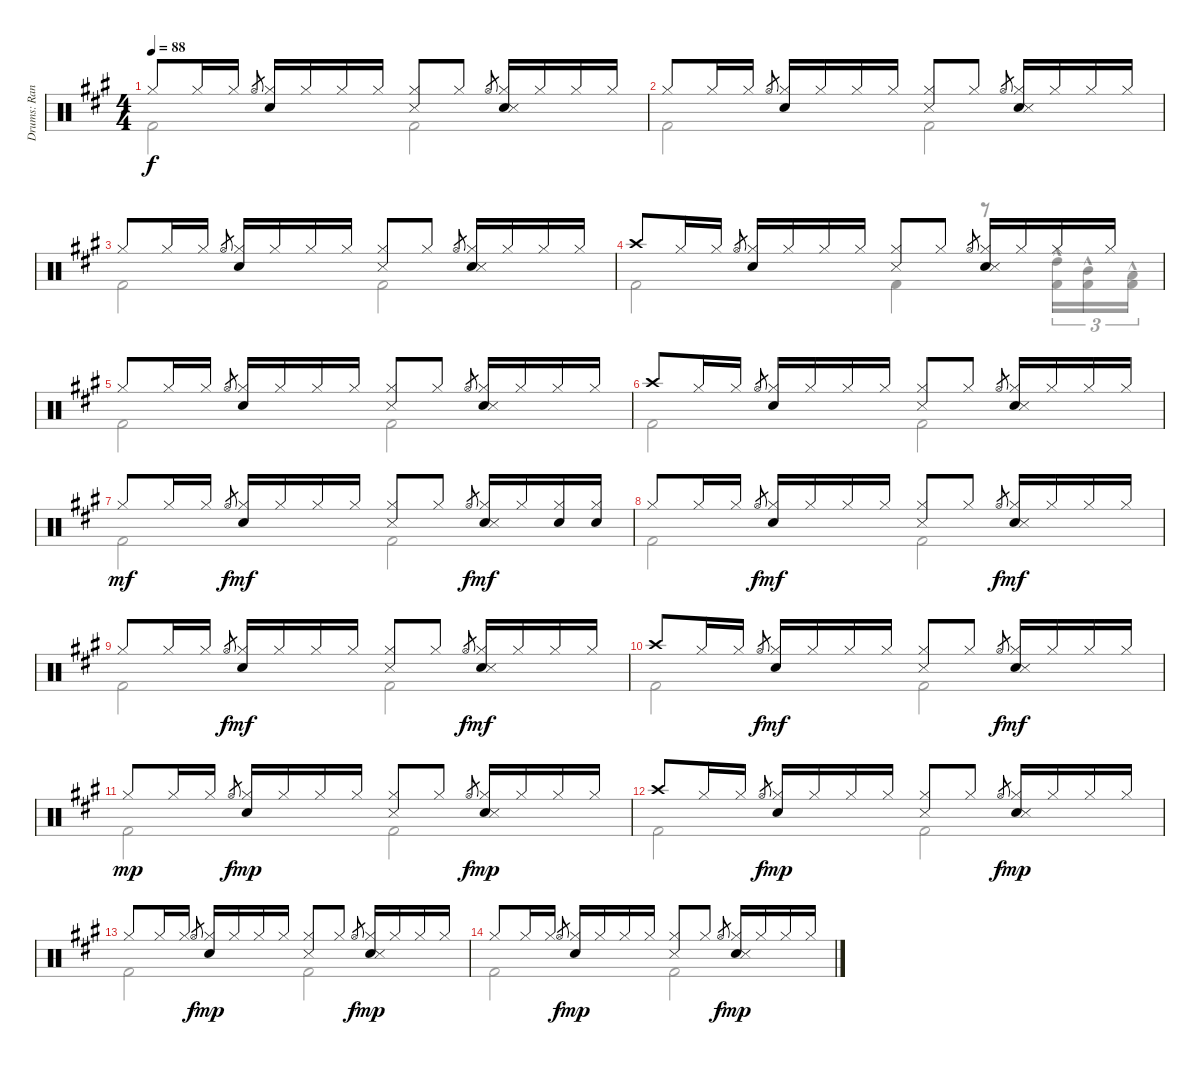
\track ("Drums: Randy" "Drums: Ran") {instrument percussion}
\staff {score}
\articulation defaults
\voice
\ts (4 4)
\tempo 88
\clef neutral
\ks a "Hi-Hat (closed)".8{dy f} "Hi-Hat (closed)".16 "Hi-Hat (closed)".16 "Hi-Hat (open)".8{gr}
("Hi-Hat (closed)" "Electric Snare (hit)").16 "Hi-Hat (closed)".16 "Hi-Hat (closed)".16 "Hi-Hat (closed)".16 ("Hi-Hat (closed)" "Snare (side stick) 3").8 "Hi-Hat (closed)".8 "Hi-Hat (open)".8{gr} ("Hi-Hat (closed)" "Electric Snare (hit)" "Snare (side stick) 3").16 "Hi-Hat (closed)".16 "Hi-Hat (closed)".16 "Hi-Hat (closed)".16 |
"Hi-Hat (closed)".8 "Hi-Hat (closed)".16 "Hi-Hat (closed)".16 "Hi-Hat (open)".8{gr} ("Hi-Hat (closed)" "Electric Snare (hit)").16 "Hi-Hat (closed)".16 "Hi-Hat (closed)".16 "Hi-Hat (closed)".16 ("Hi-Hat (closed)" "Snare (side stick) 3").8 "Hi-Hat (closed)".8 "Hi-Hat (open)".8{gr} ("Hi-Hat (closed)" "Electric Snare (hit)" "Snare (side stick) 3").16 "Hi-Hat (closed)".16 "Hi-Hat (closed)".16 "Hi-Hat (closed)".16 |
"Hi-Hat (closed)".8 "Hi-Hat (closed)".16 "Hi-Hat (closed)".16 "Hi-Hat (open)".8{gr} ("Hi-Hat (closed)" "Electric Snare (hit)").16 "Hi-Hat (closed)".16 "Hi-Hat (closed)".16 "Hi-Hat (closed)".16 ("Hi-Hat (closed)" "Snare (side stick) 3").8 "Hi-Hat (closed)".8 "Hi-Hat (open)".8{gr} ("Hi-Hat (closed)" "Electric Snare (hit)" "Snare (side stick) 3").16 "Hi-Hat (closed)".16 "Hi-Hat (closed)".16 "Hi-Hat (closed)".16 |
"Crash high (hit)".8 "Hi-Hat (closed)".16 "Hi-Hat (closed)".16 "Hi-Hat (open)".8{gr} ("Hi-Hat (closed)" "Electric Snare (hit)").16 "Hi-Hat (closed)".16 "Hi-Hat (closed)".16 "Hi-Hat (closed)".16 ("Hi-Hat (closed)" "Snare (side stick) 3").8 "Hi-Hat (closed)".8 "Hi-Hat (open)".8{gr} ("Hi-Hat (closed)" "Electric Snare (hit)" "Snare (side stick) 3").16 "Hi-Hat (closed)".16 "Hi-Hat (closed)".16 "Hi-Hat (closed)".16 |
"Hi-Hat (closed)".8 "Hi-Hat (closed)".16 "Hi-Hat (closed)".16 "Hi-Hat (open)".8{gr} ("Hi-Hat (closed)" "Electric Snare (hit)").16 "Hi-Hat (closed)".16 "Hi-Hat (closed)".16 "Hi-Hat (closed)".16 ("Hi-Hat (closed)" "Snare (side stick) 3").8 "Hi-Hat (closed)".8 "Hi-Hat (open)".8{gr} ("Hi-Hat (closed)" "Electric Snare (hit)" "Snare (side stick) 3").16 "Hi-Hat (closed)".16 "Hi-Hat (closed)".16 "Hi-Hat (closed)".16 |
"Crash high (hit)".8 "Hi-Hat (closed)".16 "Hi-Hat (closed)".16 "Hi-Hat (open)".8{gr} ("Hi-Hat (closed)" "Electric Snare (hit)").16 "Hi-Hat (closed)".16 "Hi-Hat (closed)".16 "Hi-Hat (closed)".16 ("Hi-Hat (closed)" "Snare (side stick) 3").8 "Hi-Hat (closed)".8 "Hi-Hat (open)".8{gr} ("Hi-Hat (closed)" "Electric Snare (hit)" "Snare (side stick) 3").16 "Hi-Hat (closed)".16 "Hi-Hat (closed)".16 "Hi-Hat (closed)".16 |
"Hi-Hat (closed)".8{dy mf volume 8} "Hi-Hat (closed)".16 "Hi-Hat (closed)".16 "Hi-Hat (open)".8{gr dy f} ("Hi-Hat (closed)" "Electric Snare (hit)").16{dy mf} "Hi-Hat (closed)".16 "Hi-Hat (closed)".16 "Hi-Hat (closed)".16 ("Hi-Hat (closed)" "Snare (side stick) 3").8 "Hi-Hat (closed)".8 "Hi-Hat (open)".8{gr dy f} ("Hi-Hat (closed)" "Electric Snare (hit)" "Snare (side stick) 3").16{dy mf} "Hi-Hat (closed)".16 ("Hi-Hat (closed)" "Snare (hit) 2").16 ("Hi-Hat (closed)" "Snare (hit) 2").16 |
"Hi-Hat (closed)".8 "Hi-Hat (closed)".16 "Hi-Hat (closed)".16 "Hi-Hat (open)".8{gr dy f} ("Hi-Hat (closed)" "Electric Snare (hit)").16{dy mf} "Hi-Hat (closed)".16 "Hi-Hat (closed)".16 "Hi-Hat (closed)".16 ("Hi-Hat (closed)" "Snare (side stick) 3").8 "Hi-Hat (closed)".8 "Hi-Hat (open)".8{gr dy f} ("Hi-Hat (closed)" "Electric Snare (hit)" "Snare (side stick) 3").16{dy mf} "Hi-Hat (closed)".16 "Hi-Hat (closed)".16 "Hi-Hat (closed)".16 |
"Hi-Hat (closed)".8 "Hi-Hat (closed)".16 "Hi-Hat (closed)".16 "Hi-Hat (open)".8{gr dy f} ("Hi-Hat (closed)" "Electric Snare (hit)").16{dy mf} "Hi-Hat (closed)".16 "Hi-Hat (closed)".16 "Hi-Hat (closed)".16 ("Hi-Hat (closed)" "Snare (side stick) 3").8 "Hi-Hat (closed)".8 "Hi-Hat (open)".8{gr dy f} ("Hi-Hat (closed)" "Electric Snare (hit)" "Snare (side stick) 3").16{dy mf} "Hi-Hat (closed)".16 "Hi-Hat (closed)".16 "Hi-Hat (closed)".16 |
"Crash high (hit)".8 "Hi-Hat (closed)".16 "Hi-Hat (closed)".16 "Hi-Hat (open)".8{gr dy f} ("Hi-Hat (closed)" "Electric Snare (hit)").16{dy mf} "Hi-Hat (closed)".16 "Hi-Hat (closed)".16 "Hi-Hat (closed)".16 ("Hi-Hat (closed)" "Snare (side stick) 3").8 "Hi-Hat (closed)".8 "Hi-Hat (open)".8{gr dy f} ("Hi-Hat (closed)" "Electric Snare (hit)" "Snare (side stick) 3").16{dy mf} "Hi-Hat (closed)".16 "Hi-Hat (closed)".16 "Hi-Hat (closed)".16 |
"Hi-Hat (closed)".8{dy mp volume 0} "Hi-Hat (closed)".16 "Hi-Hat (closed)".16 "Hi-Hat (open)".8{gr dy f} ("Hi-Hat (closed)" "Electric Snare (hit)").16{dy mp} "Hi-Hat (closed)".16 "Hi-Hat (closed)".16 "Hi-Hat (closed)".16 ("Hi-Hat (closed)" "Snare (side stick) 3").8 "Hi-Hat (closed)".8 "Hi-Hat (open)".8{gr dy f} ("Hi-Hat (closed)" "Electric Snare (hit)" "Snare (side stick) 3").16{dy mp} "Hi-Hat (closed)".16 "Hi-Hat (closed)".16 "Hi-Hat (closed)".16 |
"Crash high (hit)".8 "Hi-Hat (closed)".16 "Hi-Hat (closed)".16 "Hi-Hat (open)".8{gr dy f} ("Hi-Hat (closed)" "Electric Snare (hit)").16{dy mp} "Hi-Hat (closed)".16 "Hi-Hat (closed)".16 "Hi-Hat (closed)".16 ("Hi-Hat (closed)" "Snare (side stick) 3").8 "Hi-Hat (closed)".8 "Hi-Hat (open)".8{gr dy f} ("Hi-Hat (closed)" "Electric Snare (hit)" "Snare (side stick) 3").16{dy mp} "Hi-Hat (closed)".16 "Hi-Hat (closed)".16 "Hi-Hat (closed)".16 |
"Hi-Hat (closed)".8 "Hi-Hat (closed)".16 "Hi-Hat (closed)".16 "Hi-Hat (open)".8{gr dy f} ("Hi-Hat (closed)" "Electric Snare (hit)").16{dy mp} "Hi-Hat (closed)".16 "Hi-Hat (closed)".16 "Hi-Hat (closed)".16 ("Hi-Hat (closed)" "Snare (side stick) 3").8 "Hi-Hat (closed)".8 "Hi-Hat (open)".8{gr dy f} ("Hi-Hat (closed)" "Electric Snare (hit)" "Snare (side stick) 3").16{dy mp} "Hi-Hat (closed)".16 "Hi-Hat (closed)".16 "Hi-Hat (closed)".16 |
"Hi-Hat (closed)".8 "Hi-Hat (closed)".16 "Hi-Hat (closed)".16 "Hi-Hat (open)".8{gr dy f} ("Hi-Hat (closed)" "Electric Snare (hit)").16{dy mp} "Hi-Hat (closed)".16 "Hi-Hat (closed)".16 "Hi-Hat (closed)".16 ("Hi-Hat (closed)" "Snare (side stick) 3").8 "Hi-Hat (closed)".8 "Hi-Hat (open)".8{gr dy f} ("Hi-Hat (closed)" "Electric Snare (hit)" "Snare (side stick) 3").16{dy mp} "Hi-Hat (closed)".16 "Hi-Hat (closed)".16 "Hi-Hat (closed)".16
\voice
\clef neutral
\ottava regular
\simile none
\ks a "Kick (hit) 2".2{dy f} "Kick (hit) 2".2
|
"Kick (hit) 2".2 "Kick (hit) 2".2 |
"Kick (hit) 2".2 "Kick (hit) 2".2 |
"Kick (hit) 2".2 "Kick (hit) 2".4 r.8 ("High Tom (hit)"{hac} "Kick (hit) 2"{hac}).16{tu (3 2)} ("Mid Tom (hit)"{hac} "Kick (hit) 2"{hac}).16{tu (3 2)} ("Low Tom (hit)"{hac} "Kick (hit) 2"{hac}).16{tu (3 2)} |
"Kick (hit) 2".2 "Kick (hit) 2".2 |
"Kick (hit) 2".2 "Kick (hit) 2".2 |
"Kick (hit) 2".2{dy mf} "Kick (hit) 2".2 |
"Kick (hit) 2".2 "Kick (hit) 2".2 |
"Kick (hit) 2".2 "Kick (hit) 2".2 |
"Kick (hit) 2".2 "Kick (hit) 2".2 |
"Kick (hit) 2".2{dy mp} "Kick (hit) 2".2 |
"Kick (hit) 2".2 "Kick (hit) 2".2 |
"Kick (hit) 2".2 "Kick (hit) 2".2 |
"Kick (hit) 2".2 "Kick (hit) 2".2
